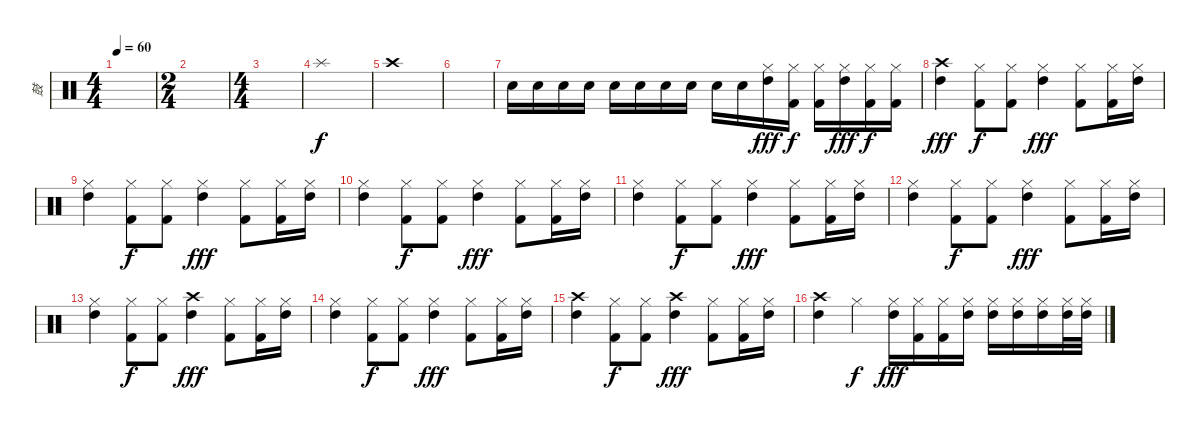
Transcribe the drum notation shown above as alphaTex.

\track ("鼓" "鼓") {instrument percussion}
\staff {score}
\articulation defaults
\ts (4 4)
\tempo 60
\clef neutral
\ks c
|
\ts (2 4)
|
\ts (4 4)
|
"Splash (hit)".1{dy f} |
"Crash high (hit)".1 |
|
"Snare (hit)".16 "Snare (hit)".16 "Snare (hit)".16 "Snare (hit)".16 "Snare (hit)".16 "Snare (hit)".16 "Snare (hit)".16 "Snare (hit)".16 "Snare (hit)".16 "Snare (hit)".16 ("Hi-Hat (closed)" "High Tom (hit)").16{dy fff} ("Hi-Hat (closed)" "Kick (hit) 2").16{dy f} ("Hi-Hat (closed)" "Kick (hit) 2").16 ("Hi-Hat (closed)" "High Tom (hit)").16{dy fff} ("Hi-Hat (closed)" "Kick (hit) 2").16{dy f} ("Hi-Hat (closed)" "Kick (hit) 2").16 |
("Crash high (hit)" "High Tom (hit)").4{dy fff} ("Hi-Hat (closed)" "Kick (hit) 2").8{dy f} ("Hi-Hat (closed)" "Kick (hit) 2").8 ("Hi-Hat (closed)" "High Tom (hit)").4{dy fff} ("Hi-Hat (closed)" "Kick (hit) 2").8 ("Hi-Hat (closed)" "Kick (hit) 2").16 ("Hi-Hat (closed)" "High Tom (hit)").16 |
("Hi-Hat (closed)" "High Tom (hit)").4 ("Hi-Hat (closed)" "Kick (hit) 2").8{dy f} ("Hi-Hat (closed)" "Kick (hit) 2").8 ("Hi-Hat (closed)" "High Tom (hit)").4{dy fff} ("Hi-Hat (closed)" "Kick (hit) 2").8 ("Hi-Hat (closed)" "Kick (hit) 2").16 ("Hi-Hat (closed)" "High Tom (hit)").16 |
("Hi-Hat (closed)" "High Tom (hit)").4 ("Hi-Hat (closed)" "Kick (hit) 2").8{dy f} ("Hi-Hat (closed)" "Kick (hit) 2").8 ("Hi-Hat (closed)" "High Tom (hit)").4{dy fff} ("Hi-Hat (closed)" "Kick (hit) 2").8 ("Hi-Hat (closed)" "Kick (hit) 2").16 ("Hi-Hat (closed)" "High Tom (hit)").16 |
("Hi-Hat (closed)" "High Tom (hit)").4 ("Hi-Hat (closed)" "Kick (hit) 2").8{dy f} ("Hi-Hat (closed)" "Kick (hit) 2").8 ("Hi-Hat (closed)" "High Tom (hit)").4{dy fff} ("Hi-Hat (closed)" "Kick (hit) 2").8 ("Hi-Hat (closed)" "Kick (hit) 2").16 ("Hi-Hat (closed)" "High Tom (hit)").16 |
("Hi-Hat (closed)" "High Tom (hit)").4 ("Hi-Hat (closed)" "Kick (hit) 2").8{dy f} ("Hi-Hat (closed)" "Kick (hit) 2").8 ("Hi-Hat (closed)" "High Tom (hit)").4{dy fff} ("Hi-Hat (closed)" "Kick (hit) 2").8 ("Hi-Hat (closed)" "Kick (hit) 2").16 ("Hi-Hat (closed)" "High Tom (hit)").16 |
("Hi-Hat (closed)" "High Tom (hit)").4 ("Hi-Hat (closed)" "Kick (hit) 2").8{dy f} ("Hi-Hat (closed)" "Kick (hit) 2").8 ("Crash high (hit)" "High Tom (hit)").4{dy fff} ("Hi-Hat (closed)" "Kick (hit) 2").8 ("Hi-Hat (closed)" "Kick (hit) 2").16 ("Hi-Hat (closed)" "High Tom (hit)").16 |
("Hi-Hat (closed)" "High Tom (hit)").4 ("Hi-Hat (closed)" "Kick (hit) 2").8{dy f} ("Hi-Hat (closed)" "Kick (hit) 2").8 ("Hi-Hat (closed)" "High Tom (hit)").4{dy fff} ("Hi-Hat (closed)" "Kick (hit) 2").8 ("Hi-Hat (closed)" "Kick (hit) 2").16 ("Hi-Hat (closed)" "High Tom (hit)").16 |
("Crash high (hit)" "High Tom (hit)").4 ("Hi-Hat (closed)" "Kick (hit) 2").8{dy f} ("Hi-Hat (closed)" "Kick (hit) 2").8 ("Crash high (hit)" "High Tom (hit)").4{dy fff} ("Hi-Hat (closed)" "Kick (hit) 2").8 ("Hi-Hat (closed)" "Kick (hit) 2").16 ("Hi-Hat (closed)" "High Tom (hit)").16 |
("Crash high (hit)" "High Tom (hit)").4 "Hi-Hat (closed)".4{dy f} ("Hi-Hat (closed)" "High Tom (hit)").16{dy fff} ("Hi-Hat (closed)" "Kick (hit) 2").16 ("Hi-Hat (closed)" "Kick (hit) 2").16 ("Hi-Hat (closed)" "High Tom (hit)").16 ("Hi-Hat (closed)" "High Tom (hit)").16 ("Hi-Hat (closed)" "High Tom (hit)").16 ("Hi-Hat (closed)" "High Tom (hit)").16 ("Hi-Hat (closed)" "High Tom (hit)").32 ("Hi-Hat (closed)" "High Tom (hit)").32
